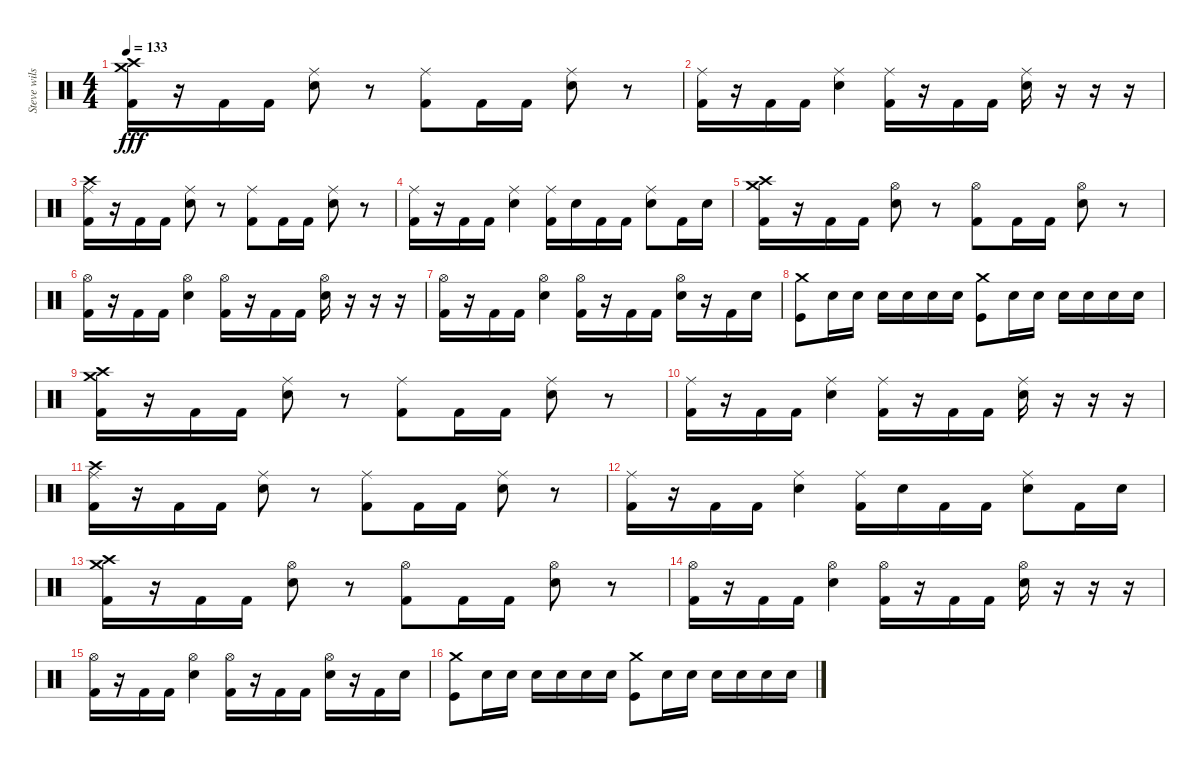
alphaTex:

\track ("Steve wilson" "Steve wils") {instrument percussion}
\staff {score}
\articulation defaults
\ts (4 4)
\tempo 133
\clef neutral
\ks c
("Crash high (hit)" "Crash medium (hit)" "Kick (hit) 2").16{dy fff} r.16 "Kick (hit) 2".16 "Kick (hit) 2".16 ("Ride (middle)" "Electric Snare (hit)").8 r.8 ("Ride (middle)" "Kick (hit) 2").8 "Kick (hit) 2".16 "Kick (hit) 2".16 ("Ride (middle)" "Electric Snare (hit)").8 r.8 |
("Ride (middle)" "Kick (hit) 2").16 r.16 "Kick (hit) 2".16 "Kick (hit) 2".16 ("Ride (middle)" "Electric Snare (hit)").4 ("Ride (middle)" "Kick (hit) 2").16 r.16 "Kick (hit) 2".16 "Kick (hit) 2".16 ("Ride (middle)" "Electric Snare (hit)").16 r.16 r.16 r.16 |
("Crash high (hit)" "Ride (middle)" "Kick (hit) 2").16 r.16 "Kick (hit) 2".16 "Kick (hit) 2".16 ("Ride (middle)" "Electric Snare (hit)").8 r.8 ("Ride (middle)" "Kick (hit) 2").8 "Kick (hit) 2".16 "Kick (hit) 2".16 ("Ride (middle)" "Electric Snare (hit)").8 r.8 |
("Ride (middle)" "Kick (hit) 2").16 r.16 "Kick (hit) 2".16 "Kick (hit) 2".16 ("Ride (middle)" "Electric Snare (hit)").4 ("Ride (middle)" "Kick (hit) 2").16 "Electric Snare (hit)".16 "Kick (hit) 2".16 "Kick (hit) 2".16 ("Ride (middle)" "Electric Snare (hit)").8 "Kick (hit) 2".16 "Electric Snare (hit)".16 |
("Crash high (hit)" "Crash medium (hit)" "Kick (hit) 2").16 r.16 "Kick (hit) 2".16 "Kick (hit) 2".16 ("Hi-Hat (open)" "Electric Snare (hit)").8 r.8 ("Hi-Hat (open)" "Kick (hit) 2").8 "Kick (hit) 2".16 "Kick (hit) 2".16 ("Hi-Hat (open)" "Electric Snare (hit)").8 r.8 |
("Hi-Hat (open)" "Kick (hit) 2").16 r.16 "Kick (hit) 2".16 "Kick (hit) 2".16 ("Hi-Hat (open)" "Electric Snare (hit)").4 ("Hi-Hat (open)" "Kick (hit) 2").16 r.16 "Kick (hit) 2".16 "Kick (hit) 2".16 ("Hi-Hat (open)" "Electric Snare (hit)").16 r.16 r.16 r.16 |
("Hi-Hat (open)" "Kick (hit) 2").16 r.16 "Kick (hit) 2".16 "Kick (hit) 2".16 ("Hi-Hat (open)" "Electric Snare (hit)").4 ("Hi-Hat (open)" "Kick (hit) 2").16 r.16 "Kick (hit) 2".16 "Kick (hit) 2".16 ("Hi-Hat (open)" "Electric Snare (hit)").16 r.16 "Kick (hit) 2".16 "Electric Snare (hit)".16 |
("Crash medium (hit)" "Kick (hit)").8 "Electric Snare (hit)".16 "Electric Snare (hit)".16 "Electric Snare (hit)".16 "Electric Snare (hit)".16 "Electric Snare (hit)".16 "Electric Snare (hit)".16 ("Crash medium (hit)" "Kick (hit)").8 "Electric Snare (hit)".16 "Electric Snare (hit)".16 "Electric Snare (hit)".16 "Electric Snare (hit)".16 "Electric Snare (hit)".16 "Electric Snare (hit)".16 |
("Crash high (hit)" "Crash medium (hit)" "Kick (hit) 2").16 r.16 "Kick (hit) 2".16 "Kick (hit) 2".16 ("Ride (middle)" "Electric Snare (hit)").8 r.8 ("Ride (middle)" "Kick (hit) 2").8 "Kick (hit) 2".16 "Kick (hit) 2".16 ("Ride (middle)" "Electric Snare (hit)").8 r.8 |
("Ride (middle)" "Kick (hit) 2").16 r.16 "Kick (hit) 2".16 "Kick (hit) 2".16 ("Ride (middle)" "Electric Snare (hit)").4 ("Ride (middle)" "Kick (hit) 2").16 r.16 "Kick (hit) 2".16 "Kick (hit) 2".16 ("Ride (middle)" "Electric Snare (hit)").16 r.16 r.16 r.16 |
("Crash high (hit)" "Ride (middle)" "Kick (hit) 2").16 r.16 "Kick (hit) 2".16 "Kick (hit) 2".16 ("Ride (middle)" "Electric Snare (hit)").8 r.8 ("Ride (middle)" "Kick (hit) 2").8 "Kick (hit) 2".16 "Kick (hit) 2".16 ("Ride (middle)" "Electric Snare (hit)").8 r.8 |
("Ride (middle)" "Kick (hit) 2").16 r.16 "Kick (hit) 2".16 "Kick (hit) 2".16 ("Ride (middle)" "Electric Snare (hit)").4 ("Ride (middle)" "Kick (hit) 2").16 "Electric Snare (hit)".16 "Kick (hit) 2".16 "Kick (hit) 2".16 ("Ride (middle)" "Electric Snare (hit)").8 "Kick (hit) 2".16 "Electric Snare (hit)".16 |
("Crash high (hit)" "Crash medium (hit)" "Kick (hit) 2").16 r.16 "Kick (hit) 2".16 "Kick (hit) 2".16 ("Hi-Hat (open)" "Electric Snare (hit)").8 r.8 ("Hi-Hat (open)" "Kick (hit) 2").8 "Kick (hit) 2".16 "Kick (hit) 2".16 ("Hi-Hat (open)" "Electric Snare (hit)").8 r.8 |
("Hi-Hat (open)" "Kick (hit) 2").16 r.16 "Kick (hit) 2".16 "Kick (hit) 2".16 ("Hi-Hat (open)" "Electric Snare (hit)").4 ("Hi-Hat (open)" "Kick (hit) 2").16 r.16 "Kick (hit) 2".16 "Kick (hit) 2".16 ("Hi-Hat (open)" "Electric Snare (hit)").16 r.16 r.16 r.16 |
("Hi-Hat (open)" "Kick (hit) 2").16 r.16 "Kick (hit) 2".16 "Kick (hit) 2".16 ("Hi-Hat (open)" "Electric Snare (hit)").4 ("Hi-Hat (open)" "Kick (hit) 2").16 r.16 "Kick (hit) 2".16 "Kick (hit) 2".16 ("Hi-Hat (open)" "Electric Snare (hit)").16 r.16 "Kick (hit) 2".16 "Electric Snare (hit)".16 |
("Crash medium (hit)" "Kick (hit)").8 "Electric Snare (hit)".16 "Electric Snare (hit)".16 "Electric Snare (hit)".16 "Electric Snare (hit)".16 "Electric Snare (hit)".16 "Electric Snare (hit)".16 ("Crash medium (hit)" "Kick (hit)").8 "Electric Snare (hit)".16 "Electric Snare (hit)".16 "Electric Snare (hit)".16 "Electric Snare (hit)".16 "Electric Snare (hit)".16 "Electric Snare (hit)".16
